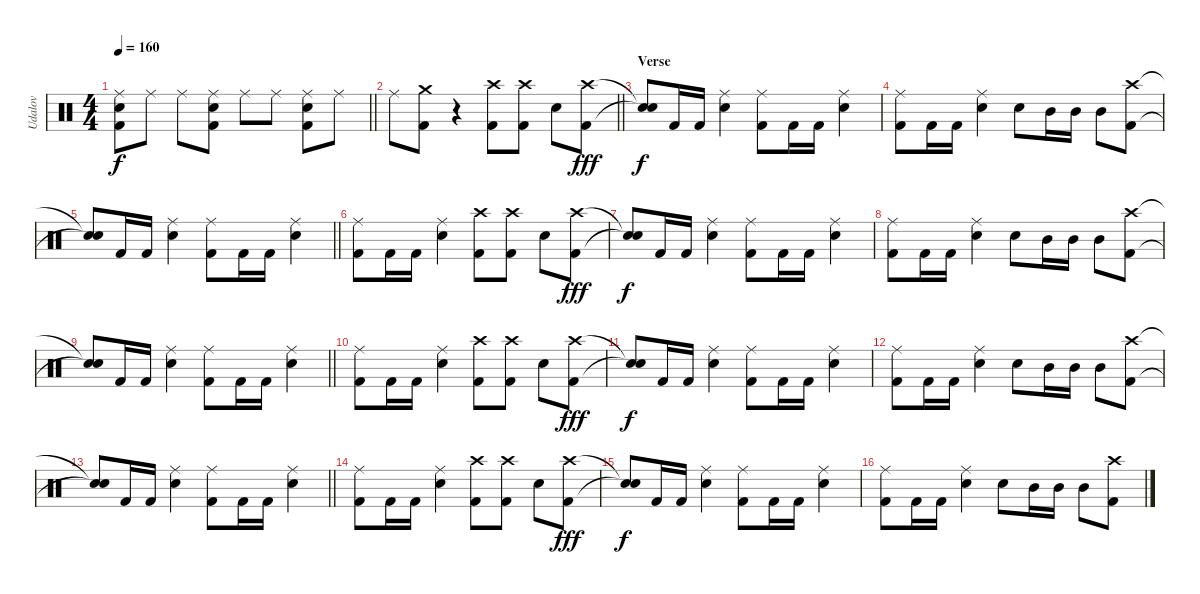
\track ("Udalov" "Udalov") {instrument percussion}
\staff {score}
\articulation defaults
\ts (4 4)
\tempo 160
\clef neutral
\barLineRight lightlight
\ks c
("Snare (hit) 2" "Ride (middle)" "Kick (hit) 2").8{dy f} "Ride (middle)".8 "Ride (middle)".8 ("Snare (hit) 2" "Ride (middle)" "Kick (hit) 2").8 "Ride (middle)".8 "Ride (middle)".8 ("Snare (hit) 2" "Ride (middle)" "Kick (hit) 2").8 "Ride (middle)".8 |
\barLineRight lightlight "Ride (middle)".8
("Kick (hit) 2" "Crash medium (hit)").8 r.4 ("Kick (hit) 2" "Crash high (hit)").8 ("Kick (hit) 2" "Crash high (hit)").8 "Snare (hit) 2".8 ("Kick (hit) 2" "Crash high (hit)").8{dy fff} |
\section ("" "Verse")
("Snare (hit)"{t} "Snare (hit)"{t}).8{dy f} "Kick (hit) 2".16 "Kick (hit) 2".16 ("Snare (hit) 2" "Ride (middle)").4 ("Kick (hit) 2" "Ride (middle)").8 "Kick (hit) 2".16 "Kick (hit) 2".16 ("Snare (hit) 2" "Ride (middle)").4 |
("Kick (hit) 2" "Ride (middle)").8 "Kick (hit) 2".16 "Kick (hit) 2".16 ("Snare (hit) 2" "Ride (middle)").4 "Snare (hit) 2".8 "Mid Tom (hit)".16 "Mid Tom (hit)".16 "Mid Tom (hit)".8 ("Kick (hit) 2" "Crash high (hit)").8 |
\barLineRight lightlight
("Snare (hit)"{t} "Snare (hit)"{t}).8 "Kick (hit) 2".16 "Kick (hit) 2".16 ("Snare (hit) 2" "Ride (middle)").4 ("Kick (hit) 2" "Ride (middle)").8 "Kick (hit) 2".16 "Kick (hit) 2".16 ("Snare (hit) 2" "Ride (middle)").4 |
("Kick (hit) 2" "Ride (middle)").8 "Kick (hit) 2".16 "Kick (hit) 2".16 ("Snare (hit) 2" "Ride (middle)").4 ("Kick (hit) 2" "Crash high (hit)").8 ("Kick (hit) 2" "Crash high (hit)").8 "Snare (hit) 2".8 ("Kick (hit) 2" "Crash high (hit)").8{dy fff} |
("Snare (hit)"{t} "Snare (hit)"{t}).8{dy f} "Kick (hit) 2".16 "Kick (hit) 2".16 ("Snare (hit) 2" "Ride (middle)").4 ("Kick (hit) 2" "Ride (middle)").8 "Kick (hit) 2".16 "Kick (hit) 2".16 ("Snare (hit) 2" "Ride (middle)").4 |
("Kick (hit) 2" "Ride (middle)").8 "Kick (hit) 2".16 "Kick (hit) 2".16 ("Snare (hit) 2" "Ride (middle)").4 "Snare (hit) 2".8 "Mid Tom (hit)".16 "Mid Tom (hit)".16 "Mid Tom (hit)".8 ("Kick (hit) 2" "Crash high (hit)").8 |
\barLineRight lightlight
("Snare (hit)"{t} "Snare (hit)"{t}).8 "Kick (hit) 2".16 "Kick (hit) 2".16 ("Snare (hit) 2" "Ride (middle)").4 ("Kick (hit) 2" "Ride (middle)").8 "Kick (hit) 2".16 "Kick (hit) 2".16 ("Snare (hit) 2" "Ride (middle)").4 |
("Kick (hit) 2" "Ride (middle)").8 "Kick (hit) 2".16 "Kick (hit) 2".16 ("Snare (hit) 2" "Ride (middle)").4 ("Kick (hit) 2" "Crash high (hit)").8 ("Kick (hit) 2" "Crash high (hit)").8 "Snare (hit) 2".8 ("Kick (hit) 2" "Crash high (hit)").8{dy fff} |
("Snare (hit)"{t} "Snare (hit)"{t}).8{dy f} "Kick (hit) 2".16 "Kick (hit) 2".16 ("Snare (hit) 2" "Ride (middle)").4 ("Kick (hit) 2" "Ride (middle)").8 "Kick (hit) 2".16 "Kick (hit) 2".16 ("Snare (hit) 2" "Ride (middle)").4 |
("Kick (hit) 2" "Ride (middle)").8 "Kick (hit) 2".16 "Kick (hit) 2".16 ("Snare (hit) 2" "Ride (middle)").4 "Snare (hit) 2".8 "Mid Tom (hit)".16 "Mid Tom (hit)".16 "Mid Tom (hit)".8 ("Kick (hit) 2" "Crash high (hit)").8 |
\barLineRight lightlight
("Snare (hit)"{t} "Snare (hit)"{t}).8 "Kick (hit) 2".16 "Kick (hit) 2".16 ("Snare (hit) 2" "Ride (middle)").4 ("Kick (hit) 2" "Ride (middle)").8 "Kick (hit) 2".16 "Kick (hit) 2".16 ("Snare (hit) 2" "Ride (middle)").4 |
("Kick (hit) 2" "Ride (middle)").8 "Kick (hit) 2".16 "Kick (hit) 2".16 ("Snare (hit) 2" "Ride (middle)").4 ("Kick (hit) 2" "Crash high (hit)").8 ("Kick (hit) 2" "Crash high (hit)").8 "Snare (hit) 2".8 ("Kick (hit) 2" "Crash high (hit)").8{dy fff} |
("Snare (hit)"{t} "Snare (hit)"{t}).8{dy f} "Kick (hit) 2".16 "Kick (hit) 2".16 ("Snare (hit) 2" "Ride (middle)").4 ("Kick (hit) 2" "Ride (middle)").8 "Kick (hit) 2".16 "Kick (hit) 2".16 ("Snare (hit) 2" "Ride (middle)").4 |
("Kick (hit) 2" "Ride (middle)").8 "Kick (hit) 2".16 "Kick (hit) 2".16 ("Snare (hit) 2" "Ride (middle)").4 "Snare (hit) 2".8 "Mid Tom (hit)".16 "Mid Tom (hit)".16 "Mid Tom (hit)".8 ("Kick (hit) 2" "Crash high (hit)").8
